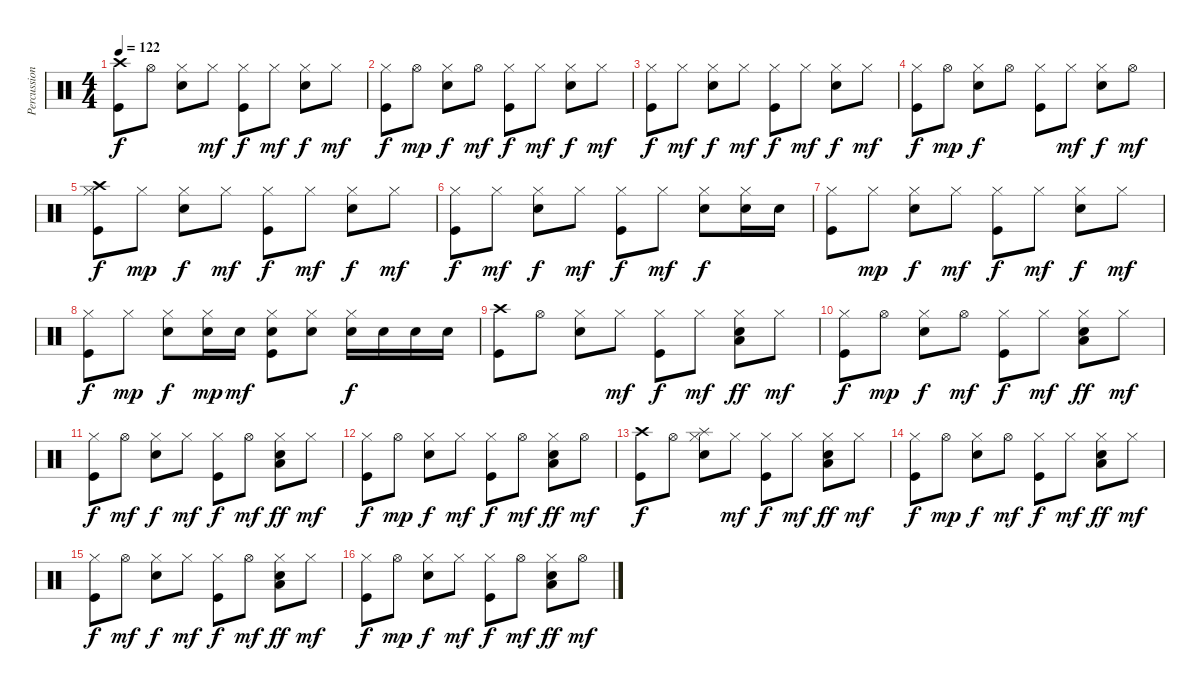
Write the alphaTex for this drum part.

\track ("Percussioni" "Percussion") {instrument percussion}
\staff {score}
\articulation defaults
\ts (4 4)
\tempo 122
\clef neutral
\ks c
("Crash high (hit)" "Kick (hit)").8{dy f} "Hi-Hat (open)".8 ("Hi-Hat (closed)" "Snare (hit) 2").8 "Hi-Hat (closed)".8{dy mf} ("Hi-Hat (closed)" "Kick (hit)").8{dy f} "Hi-Hat (closed)".8{dy mf} ("Hi-Hat (closed)" "Snare (hit) 2").8{dy f} "Hi-Hat (closed)".8{dy mf} |
("Hi-Hat (closed)" "Kick (hit)").8{dy f} "Hi-Hat (open)".8{dy mp} ("Hi-Hat (closed)" "Snare (hit) 2").8{dy f} "Hi-Hat (open)".8{dy mf} ("Hi-Hat (closed)" "Kick (hit)").8{dy f} "Hi-Hat (closed)".8{dy mf} ("Hi-Hat (closed)" "Snare (hit) 2").8{dy f} "Hi-Hat (closed)".8{dy mf} |
("Hi-Hat (closed)" "Kick (hit)").8{dy f} "Hi-Hat (closed)".8{dy mf} ("Hi-Hat (closed)" "Snare (hit) 2").8{dy f} "Hi-Hat (closed)".8{dy mf} ("Hi-Hat (closed)" "Kick (hit)").8{dy f} "Hi-Hat (closed)".8{dy mf} ("Hi-Hat (closed)" "Snare (hit) 2").8{dy f} "Hi-Hat (closed)".8{dy mf} |
("Hi-Hat (closed)" "Kick (hit)").8{dy f} "Hi-Hat (open)".8{dy mp} ("Hi-Hat (closed)" "Snare (hit) 2").8{dy f} "Hi-Hat (open)".8 ("Hi-Hat (closed)" "Kick (hit)").8 "Hi-Hat (closed)".8{dy mf} ("Hi-Hat (closed)" "Snare (hit) 2").8{dy f} "Hi-Hat (open)".8{dy mf} |
("Crash high (hit)" "Hi-Hat (closed)" "Kick (hit)").8{dy f} "Hi-Hat (closed)".8{dy mp} ("Hi-Hat (closed)" "Snare (hit) 2").8{dy f} "Hi-Hat (closed)".8{dy mf} ("Hi-Hat (closed)" "Kick (hit)").8{dy f} "Hi-Hat (closed)".8{dy mf} ("Hi-Hat (closed)" "Snare (hit) 2").8{dy f} "Hi-Hat (closed)".8{dy mf} |
("Hi-Hat (closed)" "Kick (hit)").8{dy f} "Hi-Hat (closed)".8{dy mf} ("Hi-Hat (closed)" "Snare (hit) 2").8{dy f} "Hi-Hat (closed)".8{dy mf} ("Hi-Hat (closed)" "Kick (hit)").8{dy f} "Hi-Hat (closed)".8{dy mf} ("Hi-Hat (closed)" "Snare (hit) 2").8{dy f} ("Hi-Hat (closed)" "Snare (hit) 2").16 "Snare (hit) 2".16 |
("Hi-Hat (closed)" "Kick (hit)").8 "Hi-Hat (closed)".8{dy mp} ("Hi-Hat (closed)" "Snare (hit) 2").8{dy f} "Hi-Hat (closed)".8{dy mf} ("Hi-Hat (closed)" "Kick (hit)").8{dy f} "Hi-Hat (closed)".8{dy mf} ("Hi-Hat (closed)" "Snare (hit) 2").8{dy f} "Hi-Hat (closed)".8{dy mf} |
("Hi-Hat (closed)" "Kick (hit)").8{dy f} "Hi-Hat (closed)".8{dy mp} ("Hi-Hat (closed)" "Snare (hit) 2").8{dy f} ("Hi-Hat (closed)" "Snare (hit) 2").16{dy mp} "Snare (hit) 2".16{dy mf} ("Hi-Hat (closed)" "Snare (hit) 2" "Kick (hit)").8 ("Hi-Hat (closed)" "Snare (hit) 2").8 ("Hi-Hat (closed)" "Snare (hit) 2").16{dy f} "Snare (hit) 2".16 "Snare (hit) 2".16 "Snare (hit) 2".16 |
("Crash high (hit)" "Kick (hit)").8 "Hi-Hat (open)".8 ("Hi-Hat (closed)" "Snare (hit) 2").8 "Hi-Hat (closed)".8{dy mf} ("Hi-Hat (closed)" "Kick (hit)").8{dy f} "Hi-Hat (closed)".8{dy mf} ("Low Floor Tom (hit)" "Hi-Hat (closed)" "Snare (hit) 2").8{dy ff} "Hi-Hat (closed)".8{dy mf} |
("Hi-Hat (closed)" "Kick (hit)").8{dy f} "Hi-Hat (open)".8{dy mp} ("Hi-Hat (closed)" "Snare (hit) 2").8{dy f} "Hi-Hat (open)".8{dy mf} ("Hi-Hat (closed)" "Kick (hit)").8{dy f} "Hi-Hat (closed)".8{dy mf} ("Low Floor Tom (hit)" "Hi-Hat (closed)" "Snare (hit) 2").8{dy ff} "Hi-Hat (closed)".8{dy mf} |
("Hi-Hat (closed)" "Kick (hit)").8{dy f} "Hi-Hat (open)".8{dy mf} ("Hi-Hat (closed)" "Snare (hit) 2").8{dy f} "Hi-Hat (closed)".8{dy mf} ("Hi-Hat (closed)" "Kick (hit)").8{dy f} "Hi-Hat (open)".8{dy mf} ("Low Floor Tom (hit)" "Hi-Hat (closed)" "Snare (hit) 2").8{dy ff} "Hi-Hat (closed)".8{dy mf} |
("Hi-Hat (closed)" "Kick (hit)").8{dy f} "Hi-Hat (open)".8{dy mp} ("Hi-Hat (closed)" "Snare (hit) 2").8{dy f} "Hi-Hat (closed)".8{dy mf} ("Hi-Hat (closed)" "Kick (hit)").8{dy f} "Hi-Hat (open)".8{dy mf} ("Low Floor Tom (hit)" "Hi-Hat (closed)" "Snare (hit) 2").8{dy ff} "Hi-Hat (open)".8{dy mf} |
("Crash high (hit)" "Kick (hit)").8{dy f} "Hi-Hat (open)".8 ("Splash (hit)" "Hi-Hat (closed)" "Snare (hit) 2").8 "Hi-Hat (closed)".8{dy mf} ("Hi-Hat (closed)" "Kick (hit)").8{dy f} "Hi-Hat (closed)".8{dy mf} ("Low Floor Tom (hit)" "Hi-Hat (closed)" "Snare (hit) 2").8{dy ff} "Hi-Hat (closed)".8{dy mf} |
("Hi-Hat (closed)" "Kick (hit)").8{dy f} "Hi-Hat (open)".8{dy mp} ("Hi-Hat (closed)" "Snare (hit) 2").8{dy f} "Hi-Hat (open)".8{dy mf} ("Hi-Hat (closed)" "Kick (hit)").8{dy f} "Hi-Hat (closed)".8{dy mf} ("Low Floor Tom (hit)" "Hi-Hat (closed)" "Snare (hit) 2").8{dy ff} "Hi-Hat (closed)".8{dy mf} |
("Hi-Hat (closed)" "Kick (hit)").8{dy f} "Hi-Hat (open)".8{dy mf} ("Hi-Hat (closed)" "Snare (hit) 2").8{dy f} "Hi-Hat (closed)".8{dy mf} ("Hi-Hat (closed)" "Kick (hit)").8{dy f} "Hi-Hat (open)".8{dy mf} ("Low Floor Tom (hit)" "Hi-Hat (closed)" "Snare (hit) 2").8{dy ff} "Hi-Hat (closed)".8{dy mf} |
("Hi-Hat (closed)" "Kick (hit)").8{dy f} "Hi-Hat (open)".8{dy mp} ("Hi-Hat (closed)" "Snare (hit) 2").8{dy f} "Hi-Hat (closed)".8{dy mf} ("Hi-Hat (closed)" "Kick (hit)").8{dy f} "Hi-Hat (open)".8{dy mf} ("Low Floor Tom (hit)" "Hi-Hat (closed)" "Snare (hit) 2").8{dy ff} "Hi-Hat (open)".8{dy mf}
